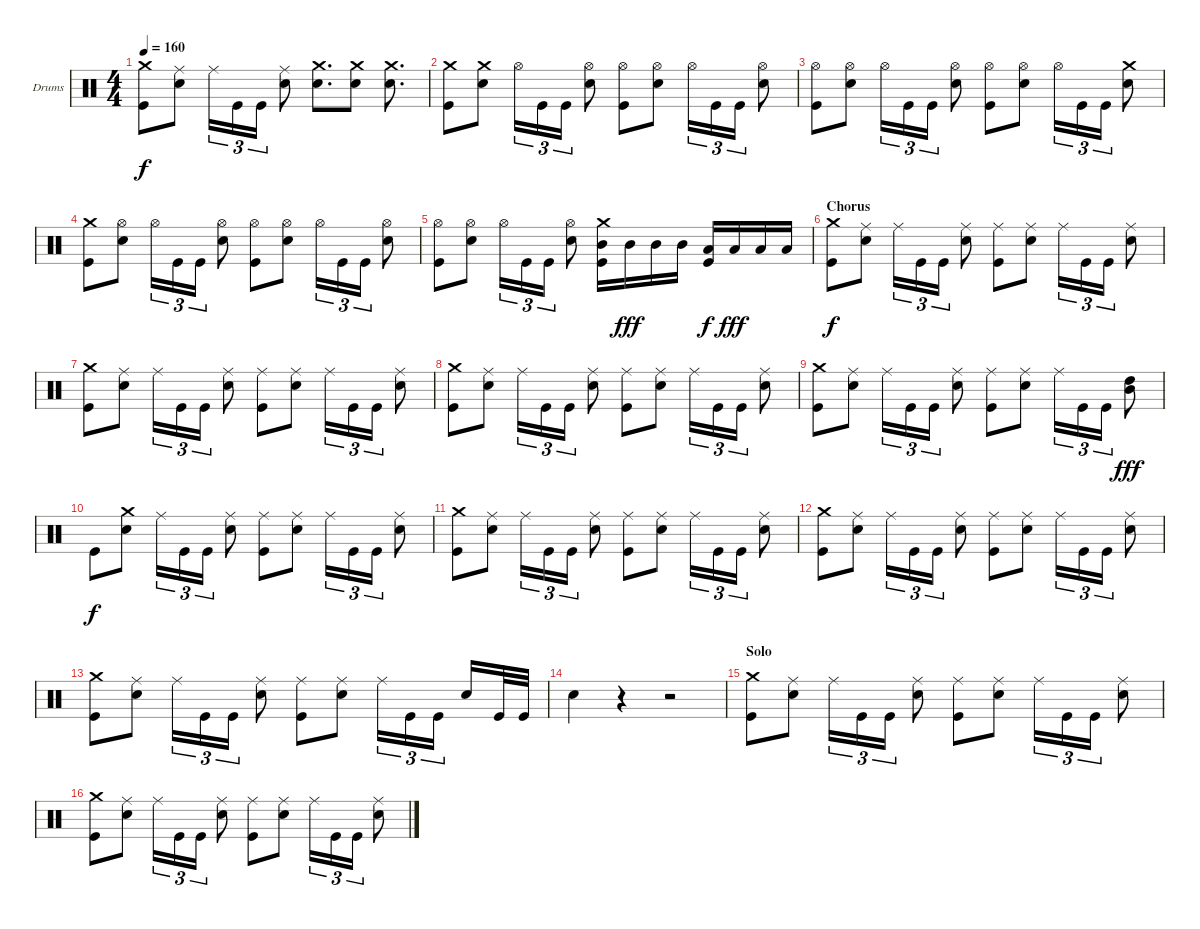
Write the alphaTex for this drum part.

\bracketExtendMode groupsimilarinstruments
\firstSystemTrackNameOrientation horizontal
\otherSystemsTrackNameOrientation horizontal
\track ("Drums" "Drums") {instrument percussion}
\staff {score}
\articulation defaults
\ts (4 4)
\tempo 160
\clef neutral
\ks c
("Crash medium (hit)" "Kick (hit)").8{dy f} ("Ride (middle)" "Snare (hit) 2").8 "Ride (middle)".16{tu (3 2)} "Kick (hit)".16{tu (3 2)} "Kick (hit)".16{tu (3 2)} ("Ride (middle)" "Snare (hit) 2").8 ("Crash medium (hit)" "Snare (hit) 2").8{d} ("Crash medium (hit)" "Snare (hit) 2").8 ("Crash medium (hit)" "Snare (hit) 2").8{d} |
("Crash medium (hit)" "Kick (hit)").8 ("Crash medium (hit)" "Snare (hit) 2").8 "Hi-Hat (open)".16{tu (3 2)} "Kick (hit)".16{tu (3 2)} "Kick (hit)".16{tu (3 2)} ("Hi-Hat (open)" "Snare (hit) 2").8 ("Hi-Hat (open)" "Kick (hit)").8 ("Hi-Hat (open)" "Snare (hit) 2").8 "Hi-Hat (open)".16{tu (3 2)} "Kick (hit)".16{tu (3 2)} "Kick (hit)".16{tu (3 2)} ("Hi-Hat (open)" "Snare (hit) 2").8 |
("Hi-Hat (open)" "Kick (hit)").8 ("Hi-Hat (open)" "Snare (hit) 2").8 "Hi-Hat (open)".16{tu (3 2)} "Kick (hit)".16{tu (3 2)} "Kick (hit)".16{tu (3 2)} ("Hi-Hat (open)" "Snare (hit) 2").8 ("Hi-Hat (open)" "Kick (hit)").8 ("Hi-Hat (open)" "Snare (hit) 2").8 "Hi-Hat (open)".16{tu (3 2)} "Kick (hit)".16{tu (3 2)} "Kick (hit)".16{tu (3 2)} ("Crash medium (hit)" "Snare (hit) 2").8 |
("Crash medium (hit)" "Kick (hit)").8 ("Hi-Hat (open)" "Snare (hit) 2").8 "Hi-Hat (open)".16{tu (3 2)} "Kick (hit)".16{tu (3 2)} "Kick (hit)".16{tu (3 2)} ("Hi-Hat (open)" "Snare (hit) 2").8 ("Hi-Hat (open)" "Kick (hit)").8 ("Hi-Hat (open)" "Snare (hit) 2").8 "Hi-Hat (open)".16{tu (3 2)} "Kick (hit)".16{tu (3 2)} "Kick (hit)".16{tu (3 2)} ("Hi-Hat (open)" "Snare (hit) 2").8 |
("Hi-Hat (open)" "Kick (hit)").8 ("Hi-Hat (open)" "Snare (hit) 2").8 "Hi-Hat (open)".16{tu (3 2)} "Kick (hit)".16{tu (3 2)} "Kick (hit)".16{tu (3 2)} ("Hi-Hat (open)" "Snare (hit) 2").8 ("Crash medium (hit)" "Kick (hit)" "Mid Tom (hit)").16 "Mid Tom (hit)".16{dy fff} "Mid Tom (hit)".16 "Mid Tom (hit)".16 ("Kick (hit)" "Low Tom (hit)").16{dy f} "Low Tom (hit)".16{dy fff} "Low Tom (hit)".16 "Low Tom (hit)".16 |
\section ("" "Chorus")
("Crash medium (hit)" "Kick (hit)").8{dy f} ("Ride (middle)" "Snare (hit) 2").8 "Ride (middle)".16{tu (3 2)} "Kick (hit)".16{tu (3 2)} "Kick (hit)".16{tu (3 2)} ("Ride (middle)" "Snare (hit) 2").8 ("Ride (middle)" "Kick (hit)").8 ("Ride (middle)" "Snare (hit) 2").8 "Ride (middle)".16{tu (3 2)} "Kick (hit)".16{tu (3 2)} "Kick (hit)".16{tu (3 2)} ("Ride (middle)" "Snare (hit) 2").8 |
("Crash medium (hit)" "Kick (hit)").8 ("Ride (middle)" "Snare (hit) 2").8 "Ride (middle)".16{tu (3 2)} "Kick (hit)".16{tu (3 2)} "Kick (hit)".16{tu (3 2)} ("Ride (middle)" "Snare (hit) 2").8 ("Ride (middle)" "Kick (hit)").8 ("Ride (middle)" "Snare (hit) 2").8 "Ride (middle)".16{tu (3 2)} "Kick (hit)".16{tu (3 2)} "Kick (hit)".16{tu (3 2)} ("Ride (middle)" "Snare (hit) 2").8 |
("Crash medium (hit)" "Kick (hit)").8 ("Ride (middle)" "Snare (hit) 2").8 "Ride (middle)".16{tu (3 2)} "Kick (hit)".16{tu (3 2)} "Kick (hit)".16{tu (3 2)} ("Ride (middle)" "Snare (hit) 2").8 ("Ride (middle)" "Kick (hit)").8 ("Ride (middle)" "Snare (hit) 2").8 "Ride (middle)".16{tu (3 2)} "Kick (hit)".16{tu (3 2)} "Kick (hit)".16{tu (3 2)} ("Ride (middle)" "Snare (hit) 2").8 |
("Crash medium (hit)" "Kick (hit)").8 ("Ride (middle)" "Snare (hit) 2").8 "Ride (middle)".16{tu (3 2)} "Kick (hit)".16{tu (3 2)} "Kick (hit)".16{tu (3 2)} ("Ride (middle)" "Snare (hit) 2").8 ("Ride (middle)" "Kick (hit)").8 ("Ride (middle)" "Snare (hit) 2").8 "Ride (middle)".16{tu (3 2)} "Kick (hit)".16{tu (3 2)} "Kick (hit)".16{tu (3 2)} ("High Tom (hit)" "Mid Tom (hit)").8{dy fff} |
"Kick (hit)".8{dy f} ("Crash medium (hit)" "Snare (hit) 2").8 "Ride (middle)".16{tu (3 2)} "Kick (hit)".16{tu (3 2)} "Kick (hit)".16{tu (3 2)} ("Ride (middle)" "Snare (hit) 2").8 ("Ride (middle)" "Kick (hit)").8 ("Ride (middle)" "Snare (hit) 2").8 "Ride (middle)".16{tu (3 2)} "Kick (hit)".16{tu (3 2)} "Kick (hit)".16{tu (3 2)} ("Ride (middle)" "Snare (hit) 2").8 |
("Crash medium (hit)" "Kick (hit)").8 ("Ride (middle)" "Snare (hit) 2").8 "Ride (middle)".16{tu (3 2)} "Kick (hit)".16{tu (3 2)} "Kick (hit)".16{tu (3 2)} ("Ride (middle)" "Snare (hit) 2").8 ("Ride (middle)" "Kick (hit)").8 ("Ride (middle)" "Snare (hit) 2").8 "Ride (middle)".16{tu (3 2)} "Kick (hit)".16{tu (3 2)} "Kick (hit)".16{tu (3 2)} ("Ride (middle)" "Snare (hit) 2").8 |
("Crash medium (hit)" "Kick (hit)").8 ("Ride (middle)" "Snare (hit) 2").8 "Ride (middle)".16{tu (3 2)} "Kick (hit)".16{tu (3 2)} "Kick (hit)".16{tu (3 2)} ("Ride (middle)" "Snare (hit) 2").8 ("Ride (middle)" "Kick (hit)").8 ("Ride (middle)" "Snare (hit) 2").8 "Ride (middle)".16{tu (3 2)} "Kick (hit)".16{tu (3 2)} "Kick (hit)".16{tu (3 2)} ("Ride (middle)" "Snare (hit) 2").8 |
("Crash medium (hit)" "Kick (hit)").8 ("Ride (middle)" "Snare (hit) 2").8 "Ride (middle)".16{tu (3 2)} "Kick (hit)".16{tu (3 2)} "Kick (hit)".16{tu (3 2)} ("Ride (middle)" "Snare (hit) 2").8 ("Ride (middle)" "Kick (hit)").8 ("Ride (middle)" "Snare (hit) 2").8 "Ride (middle)".16{tu (3 2)} "Kick (hit)".16{tu (3 2)} "Kick (hit)".16{tu (3 2)} "Snare (hit) 2".16 "Kick (hit)".32 "Kick (hit)".32 |
"Snare (hit) 2".4 r.4 r.2 |
\section ("" "Solo")
("Crash medium (hit)" "Kick (hit)").8 ("Ride (middle)" "Snare (hit) 2").8 "Ride (middle)".16{tu (3 2)} "Kick (hit)".16{tu (3 2)} "Kick (hit)".16{tu (3 2)} ("Ride (middle)" "Snare (hit) 2").8 ("Ride (middle)" "Kick (hit)").8 ("Ride (middle)" "Snare (hit) 2").8 "Ride (middle)".16{tu (3 2)} "Kick (hit)".16{tu (3 2)} "Kick (hit)".16{tu (3 2)} ("Ride (middle)" "Snare (hit) 2").8 |
("Crash medium (hit)" "Kick (hit)").8 ("Ride (middle)" "Snare (hit) 2").8 "Ride (middle)".16{tu (3 2)} "Kick (hit)".16{tu (3 2)} "Kick (hit)".16{tu (3 2)} ("Ride (middle)" "Snare (hit) 2").8 ("Ride (middle)" "Kick (hit)").8 ("Ride (middle)" "Snare (hit) 2").8 "Ride (middle)".16{tu (3 2)} "Kick (hit)".16{tu (3 2)} "Kick (hit)".16{tu (3 2)} ("Ride (middle)" "Snare (hit) 2").8
